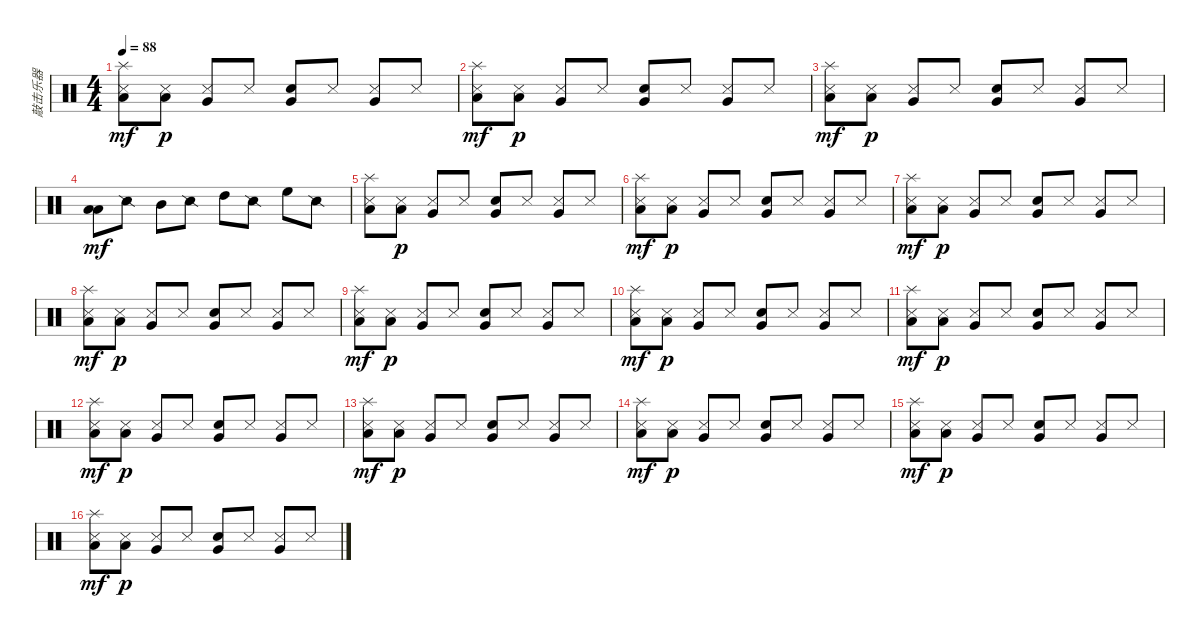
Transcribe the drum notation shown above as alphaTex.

\track ("敲击乐器" "敲击乐器") {instrument percussion}
\staff {score}
\articulation defaults
\ts (4 4)
\tempo 88
\clef neutral
\ks c
("Low Floor Tom (hit)" "Splash (hit)" "Snare (side stick) 3").8{dy mf} ("Low Floor Tom (hit)" "Snare (side stick) 3").8{dy p} ("Very Low Tom (hit)" "Snare (side stick) 3").8 "Snare (side stick) 3".8 ("Very Low Tom (hit)" "Snare (hit) 2").8 "Snare (side stick) 3".8 ("Very Low Tom (hit)" "Snare (side stick) 3").8 "Snare (side stick) 3".8 |
("Low Floor Tom (hit)" "Splash (hit)" "Snare (side stick) 3").8{dy mf} ("Low Floor Tom (hit)" "Snare (side stick) 3").8{dy p} ("Very Low Tom (hit)" "Snare (side stick) 3").8 "Snare (side stick) 3".8 ("Very Low Tom (hit)" "Snare (hit) 2").8 "Snare (side stick) 3".8 ("Very Low Tom (hit)" "Snare (side stick) 3").8 "Snare (side stick) 3".8 |
("Low Floor Tom (hit)" "Splash (hit)" "Snare (side stick) 3").8{dy mf} ("Low Floor Tom (hit)" "Snare (side stick) 3").8{dy p} ("Very Low Tom (hit)" "Snare (side stick) 3").8 "Snare (side stick) 3".8 ("Very Low Tom (hit)" "Snare (hit) 2").8 "Snare (side stick) 3".8 ("Very Low Tom (hit)" "Snare (side stick) 3").8 "Snare (side stick) 3".8 |
("Low Tom (hit)" "Low Floor Tom (hit)").8{dy mf} "Snare (side stick) 2".8 "Mid Tom (hit)".8 "Snare (side stick) 2".8 "High Tom (hit)".8 "Snare (side stick) 2".8 "High Floor Tom (hit)".8 "Snare (side stick) 2".8 |
("Low Floor Tom (hit)" "Splash (hit)" "Snare (side stick) 3").8 ("Low Floor Tom (hit)" "Snare (side stick) 3").8{dy p} ("Very Low Tom (hit)" "Snare (side stick) 3").8 "Snare (side stick) 3".8 ("Very Low Tom (hit)" "Snare (hit) 2").8 "Snare (side stick) 3".8 ("Very Low Tom (hit)" "Snare (side stick) 3").8 "Snare (side stick) 3".8 |
("Low Floor Tom (hit)" "Splash (hit)" "Snare (side stick) 3").8{dy mf} ("Low Floor Tom (hit)" "Snare (side stick) 3").8{dy p} ("Very Low Tom (hit)" "Snare (side stick) 3").8 "Snare (side stick) 3".8 ("Very Low Tom (hit)" "Snare (hit) 2").8 "Snare (side stick) 3".8 ("Very Low Tom (hit)" "Snare (side stick) 3").8 "Snare (side stick) 3".8 |
("Low Floor Tom (hit)" "Splash (hit)" "Snare (side stick) 3").8{dy mf} ("Low Floor Tom (hit)" "Snare (side stick) 3").8{dy p} ("Very Low Tom (hit)" "Snare (side stick) 3").8 "Snare (side stick) 3".8 ("Very Low Tom (hit)" "Snare (hit) 2").8 "Snare (side stick) 3".8 ("Very Low Tom (hit)" "Snare (side stick) 3").8 "Snare (side stick) 3".8 |
("Low Floor Tom (hit)" "Splash (hit)" "Snare (side stick) 3").8{dy mf} ("Low Floor Tom (hit)" "Snare (side stick) 3").8{dy p} ("Very Low Tom (hit)" "Snare (side stick) 3").8 "Snare (side stick) 3".8 ("Very Low Tom (hit)" "Snare (hit) 2").8 "Snare (side stick) 3".8 ("Very Low Tom (hit)" "Snare (side stick) 3").8 "Snare (side stick) 3".8 |
("Low Floor Tom (hit)" "Splash (hit)" "Snare (side stick) 3").8{dy mf} ("Low Floor Tom (hit)" "Snare (side stick) 3").8{dy p} ("Very Low Tom (hit)" "Snare (side stick) 3").8 "Snare (side stick) 3".8 ("Very Low Tom (hit)" "Snare (hit) 2").8 "Snare (side stick) 3".8 ("Very Low Tom (hit)" "Snare (side stick) 3").8 "Snare (side stick) 3".8 |
("Low Floor Tom (hit)" "Splash (hit)" "Snare (side stick) 3").8{dy mf} ("Low Floor Tom (hit)" "Snare (side stick) 3").8{dy p} ("Very Low Tom (hit)" "Snare (side stick) 3").8 "Snare (side stick) 3".8 ("Very Low Tom (hit)" "Snare (hit) 2").8 "Snare (side stick) 3".8 ("Very Low Tom (hit)" "Snare (side stick) 3").8 "Snare (side stick) 3".8 |
("Low Floor Tom (hit)" "Splash (hit)" "Snare (side stick) 3").8{dy mf} ("Low Floor Tom (hit)" "Snare (side stick) 3").8{dy p} ("Very Low Tom (hit)" "Snare (side stick) 3").8 "Snare (side stick) 3".8 ("Very Low Tom (hit)" "Snare (hit) 2").8 "Snare (side stick) 3".8 ("Very Low Tom (hit)" "Snare (side stick) 3").8 "Snare (side stick) 3".8 |
("Low Floor Tom (hit)" "Splash (hit)" "Snare (side stick) 3").8{dy mf} ("Low Floor Tom (hit)" "Snare (side stick) 3").8{dy p} ("Very Low Tom (hit)" "Snare (side stick) 3").8 "Snare (side stick) 3".8 ("Very Low Tom (hit)" "Snare (hit) 2").8 "Snare (side stick) 3".8 ("Very Low Tom (hit)" "Snare (side stick) 3").8 "Snare (side stick) 3".8 |
("Low Floor Tom (hit)" "Splash (hit)" "Snare (side stick) 3").8{dy mf} ("Low Floor Tom (hit)" "Snare (side stick) 3").8{dy p} ("Very Low Tom (hit)" "Snare (side stick) 3").8 "Snare (side stick) 3".8 ("Very Low Tom (hit)" "Snare (hit) 2").8 "Snare (side stick) 3".8 ("Very Low Tom (hit)" "Snare (side stick) 3").8 "Snare (side stick) 3".8 |
("Low Floor Tom (hit)" "Splash (hit)" "Snare (side stick) 3").8{dy mf} ("Low Floor Tom (hit)" "Snare (side stick) 3").8{dy p} ("Very Low Tom (hit)" "Snare (side stick) 3").8 "Snare (side stick) 3".8 ("Very Low Tom (hit)" "Snare (hit) 2").8 "Snare (side stick) 3".8 ("Very Low Tom (hit)" "Snare (side stick) 3").8 "Snare (side stick) 3".8 |
("Low Floor Tom (hit)" "Splash (hit)" "Snare (side stick) 3").8{dy mf} ("Low Floor Tom (hit)" "Snare (side stick) 3").8{dy p} ("Very Low Tom (hit)" "Snare (side stick) 3").8 "Snare (side stick) 3".8 ("Very Low Tom (hit)" "Snare (hit) 2").8 "Snare (side stick) 3".8 ("Very Low Tom (hit)" "Snare (side stick) 3").8 "Snare (side stick) 3".8 |
("Low Floor Tom (hit)" "Splash (hit)" "Snare (side stick) 3").8{dy mf} ("Low Floor Tom (hit)" "Snare (side stick) 3").8{dy p} ("Very Low Tom (hit)" "Snare (side stick) 3").8 "Snare (side stick) 3".8 ("Very Low Tom (hit)" "Snare (hit) 2").8 "Snare (side stick) 3".8 ("Very Low Tom (hit)" "Snare (side stick) 3").8 "Snare (side stick) 3".8
